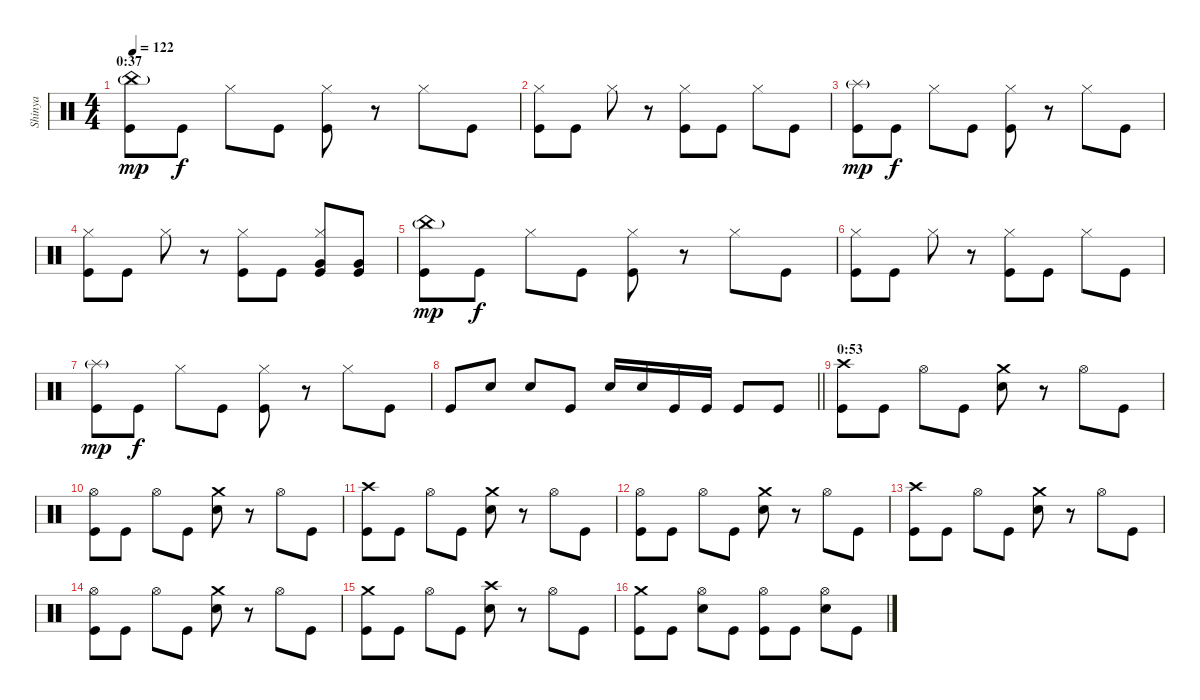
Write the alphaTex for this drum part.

\track ("Shinya" "Shinya") {instrument percussion}
\staff {score}
\articulation defaults
\ts (4 4)
\section ("" "0:37")
\tempo 122
\clef neutral
\ks c
("China (hit)"{g} "Kick (hit)").8{dy mp} "Kick (hit)".8{dy f} "Hi-Hat (closed)".8 "Kick (hit)".8 ("Hi-Hat (closed)" "Kick (hit)").8 r.8 "Hi-Hat (closed)".8 "Kick (hit)".8 |
("Hi-Hat (closed)" "Kick (hit)").8 "Kick (hit)".8 "Hi-Hat (closed)".8 r.8 ("Hi-Hat (closed)" "Kick (hit)").8 "Kick (hit)".8 "Hi-Hat (closed)".8 "Kick (hit)".8 |
("Splash (hit)"{g} "Kick (hit)").8{dy mp} "Kick (hit)".8{dy f} "Hi-Hat (closed)".8 "Kick (hit)".8 ("Hi-Hat (closed)" "Kick (hit)").8 r.8 "Hi-Hat (closed)".8 "Kick (hit)".8 |
("Hi-Hat (closed)" "Kick (hit)").8 "Kick (hit)".8 "Hi-Hat (closed)".8 r.8 ("Hi-Hat (closed)" "Kick (hit)").8 "Kick (hit)".8 ("Hi-Hat (closed)" "Very Low Tom (hit)" "Kick (hit)").8 ("Very Low Tom (hit)" "Kick (hit)").8 |
("China (hit)"{g} "Kick (hit)").8{dy mp} "Kick (hit)".8{dy f} "Hi-Hat (closed)".8 "Kick (hit)".8 ("Hi-Hat (closed)" "Kick (hit)").8 r.8 "Hi-Hat (closed)".8 "Kick (hit)".8 |
("Hi-Hat (closed)" "Kick (hit)").8 "Kick (hit)".8 "Hi-Hat (closed)".8 r.8 ("Hi-Hat (closed)" "Kick (hit)").8 "Kick (hit)".8 "Hi-Hat (closed)".8 "Kick (hit)".8 |
("Splash (hit)"{g} "Kick (hit)").8{dy mp} "Kick (hit)".8{dy f} "Hi-Hat (closed)".8 "Kick (hit)".8 ("Hi-Hat (closed)" "Kick (hit)").8 r.8 "Hi-Hat (closed)".8 "Kick (hit)".8 |
\barLineRight lightlight "Kick (hit)".8 "Snare (hit) 2".8 "Snare (hit) 2".8 "Kick (hit)".8 "Snare (hit) 2".16 "Snare (hit) 2".16 "Kick (hit)".16 "Kick (hit)".16 "Kick (hit)".8 "Kick (hit)".8
|
\section ("" "0:53")
("Crash high (hit)" "Kick (hit)").8 "Kick (hit)".8 "Hi-Hat (open)".8 "Kick (hit)".8 ("Crash medium (hit)" "Snare (hit) 2").8 r.8 "Hi-Hat (open)".8 "Kick (hit)".8 |
("Hi-Hat (open)" "Kick (hit)").8 "Kick (hit)".8 "Hi-Hat (open)".8 "Kick (hit)".8 ("Crash medium (hit)" "Snare (hit) 2").8 r.8 "Hi-Hat (open)".8 "Kick (hit)".8 |
("Crash high (hit)" "Kick (hit)").8 "Kick (hit)".8 "Hi-Hat (open)".8 "Kick (hit)".8 ("Crash medium (hit)" "Snare (hit) 2").8 r.8 "Hi-Hat (open)".8 "Kick (hit)".8 |
("Hi-Hat (open)" "Kick (hit)").8 "Kick (hit)".8 "Hi-Hat (open)".8 "Kick (hit)".8 ("Crash medium (hit)" "Snare (hit) 2").8 r.8 "Hi-Hat (open)".8 "Kick (hit)".8 |
("Crash high (hit)" "Kick (hit)").8 "Kick (hit)".8 "Hi-Hat (open)".8 "Kick (hit)".8 ("Crash medium (hit)" "Snare (hit) 2").8 r.8 "Hi-Hat (open)".8 "Kick (hit)".8 |
("Hi-Hat (open)" "Kick (hit)").8 "Kick (hit)".8 "Hi-Hat (open)".8 "Kick (hit)".8 ("Crash medium (hit)" "Snare (hit) 2").8 r.8 "Hi-Hat (open)".8 "Kick (hit)".8 |
("Crash medium (hit)" "Kick (hit)").8 "Kick (hit)".8 "Hi-Hat (open)".8 "Kick (hit)".8 ("Crash high (hit)" "Snare (hit) 2").8 r.8 "Hi-Hat (open)".8 "Kick (hit)".8 |
("Crash medium (hit)" "Kick (hit)").8 "Kick (hit)".8 ("Hi-Hat (open)" "Snare (hit) 2").8 "Kick (hit)".8 ("Hi-Hat (open)" "Kick (hit)").8 "Kick (hit)".8 ("Hi-Hat (open)" "Snare (hit) 2").8 "Kick (hit)".8
